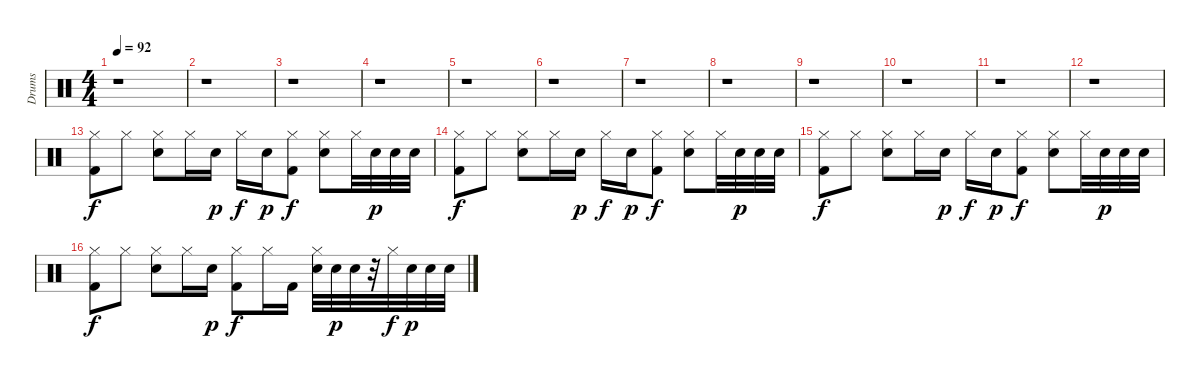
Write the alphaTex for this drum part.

\track ("Drums" "Drums") {instrument percussion}
\staff {score}
\articulation defaults
\ts (4 4)
\tempo 92
\clef neutral
\ks c
r.1{dy f} |
r.1 |
r.1 |
r.1 |
r.1 |
r.1 |
r.1 |
r.1 |
r.1 |
r.1 |
r.1 |
r.1 |
("Kick (hit) 2" "Hi-Hat (closed)").8 "Hi-Hat (closed)".8 ("Electric Snare (hit)" "Hi-Hat (closed)").8 "Hi-Hat (closed)".16 "Electric Snare (hit)".16{dy p} "Hi-Hat (closed)".16{dy f} "Electric Snare (hit)".16{dy p} ("Kick (hit) 2" "Hi-Hat (closed)").8{dy f} ("Electric Snare (hit)" "Hi-Hat (closed)").8 "Hi-Hat (closed)".32 "Electric Snare (hit)".32{dy p} "Electric Snare (hit)".32 "Electric Snare (hit)".32 |
("Kick (hit) 2" "Hi-Hat (closed)").8{dy f} "Hi-Hat (closed)".8 ("Electric Snare (hit)" "Hi-Hat (closed)").8 "Hi-Hat (closed)".16 "Electric Snare (hit)".16{dy p} "Hi-Hat (closed)".16{dy f} "Electric Snare (hit)".16{dy p} ("Kick (hit) 2" "Hi-Hat (closed)").8{dy f} ("Electric Snare (hit)" "Hi-Hat (closed)").8 "Hi-Hat (closed)".32 "Electric Snare (hit)".32{dy p} "Electric Snare (hit)".32 "Electric Snare (hit)".32 |
("Kick (hit) 2" "Hi-Hat (closed)").8{dy f} "Hi-Hat (closed)".8 ("Electric Snare (hit)" "Hi-Hat (closed)").8 "Hi-Hat (closed)".16 "Electric Snare (hit)".16{dy p} "Hi-Hat (closed)".16{dy f} "Electric Snare (hit)".16{dy p} ("Kick (hit) 2" "Hi-Hat (closed)").8{dy f} ("Electric Snare (hit)" "Hi-Hat (closed)").8 "Hi-Hat (closed)".32 "Electric Snare (hit)".32{dy p} "Electric Snare (hit)".32 "Electric Snare (hit)".32 |
("Kick (hit) 2" "Hi-Hat (closed)").8{dy f} "Hi-Hat (closed)".8 ("Electric Snare (hit)" "Hi-Hat (closed)").8 "Hi-Hat (closed)".16 "Electric Snare (hit)".16{dy p} ("Hi-Hat (closed)" "Kick (hit) 2").8{dy f} "Hi-Hat (closed)".16 "Kick (hit) 2".16 ("Hi-Hat (closed)" "Electric Snare (hit)").32 "Electric Snare (hit)".32{dy p} "Electric Snare (hit)".32 r.32 "Hi-Hat (closed)".32{dy f} "Electric Snare (hit)".32{dy p} "Electric Snare (hit)".32 "Electric Snare (hit)".32
